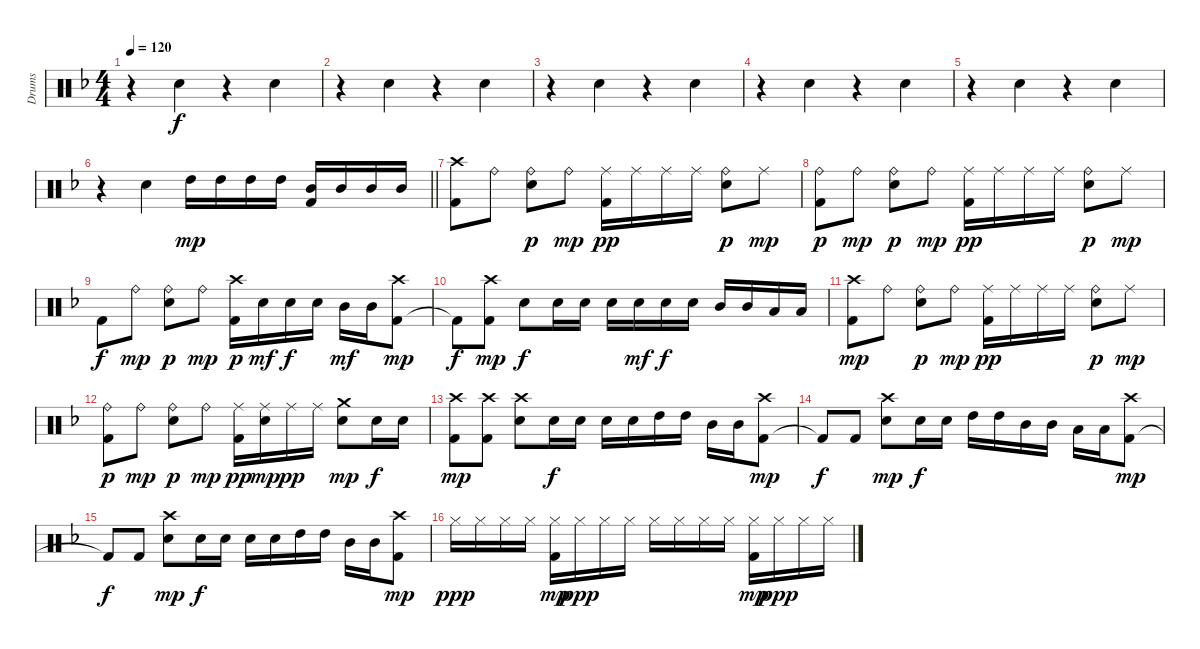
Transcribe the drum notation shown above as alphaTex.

\track ("Drums" "Drums") {instrument percussion}
\staff {score}
\articulation defaults
\ts (4 4)
\tempo 120
\clef neutral
\ks dminor
r.4{dy f} "Electric Snare (hit)".4 r.4 "Electric Snare (hit)".4 |
r.4 "Electric Snare (hit)".4 r.4 "Electric Snare (hit)".4 |
r.4 "Electric Snare (hit)".4 r.4 "Electric Snare (hit)".4 |
r.4 "Electric Snare (hit)".4 r.4 "Electric Snare (hit)".4 |
r.4 "Electric Snare (hit)".4 r.4 "Electric Snare (hit)".4 |
\barLineRight lightlight
r.4 "Electric Snare (hit)".4 "High Tom (hit)".16{dy mp} "High Tom (hit)".16 "High Tom (hit)".16 "High Tom (hit)".16 ("Mid Tom (hit)" "Kick (hit) 2").16 "Mid Tom (hit)".16 "Mid Tom (hit)".16 "Mid Tom (hit)".16 |
("Kick (hit) 2" "Crash high (hit)").8 "Ride (bell)".8 ("Electric Snare (hit)" "Ride (bell)").8{dy p} "Ride (bell)".8{dy mp} ("Kick (hit) 2" "Ride (middle)").16{dy pp} "Ride (middle)".16 "Ride (middle)".16 "Ride (middle)".16 ("Electric Snare (hit)" "Ride (bell)").8{dy p} "Ride (middle)".8{dy mp} |
("Kick (hit) 2" "Ride (bell)").8{dy p} "Ride (bell)".8{dy mp} ("Electric Snare (hit)" "Ride (bell)").8{dy p} "Ride (bell)".8{dy mp} ("Kick (hit) 2" "Ride (middle)").16{dy pp} "Ride (middle)".16 "Ride (middle)".16 "Ride (middle)".16 ("Electric Snare (hit)" "Ride (bell)").8{dy p} "Ride (middle)".8{dy mp} |
"Kick (hit) 2".8{dy f} "Ride (bell)".8{dy mp} ("Electric Snare (hit)" "Ride (bell)").8{dy p} "Ride (bell)".8{dy mp} ("Kick (hit) 2" "Crash high (hit)").16{dy p} "Electric Snare (hit)".16{dy mf} "Electric Snare (hit)".16{dy f} "Electric Snare (hit)".16 "Mid Tom (hit)".16{dy mf} "Mid Tom (hit)".16 ("Kick (hit) 2" "Crash high (hit)").8{dy mp} |
"Kick (hit) 2"{t}.8{dy f} ("Kick (hit) 2" "Crash high (hit)").8{dy mp} "Electric Snare (hit)".8{dy f} "Electric Snare (hit)".16 "Electric Snare (hit)".16 "Electric Snare (hit)".16 "Electric Snare (hit)".16{dy mf} "Electric Snare (hit)".16{dy f} "Electric Snare (hit)".16 "Mid Tom (hit)".16 "Mid Tom (hit)".16 "Low Tom (hit)".16 "Low Tom (hit)".16 |
("Kick (hit) 2" "Crash high (hit)").8{dy mp} "Ride (bell)".8 ("Electric Snare (hit)" "Ride (bell)").8{dy p} "Ride (bell)".8{dy mp} ("Kick (hit) 2" "Ride (middle)").16{dy pp} "Ride (middle)".16 "Ride (middle)".16 "Ride (middle)".16 ("Electric Snare (hit)" "Ride (bell)").8{dy p} "Ride (middle)".8{dy mp} |
("Kick (hit) 2" "Ride (bell)").8{dy p} "Ride (bell)".8{dy mp} ("Electric Snare (hit)" "Ride (bell)").8{dy p} "Ride (bell)".8{dy mp} ("Kick (hit) 2" "Ride (middle)").16{dy pp} ("Ride (middle)" "Electric Snare (hit)").16{dy mp} "Ride (middle)".16{dy pp} "Ride (middle)".16 ("Electric Snare (hit)" "Crash medium (hit)").8{dy mp} "Electric Snare (hit)".16{dy f} "Electric Snare (hit)".16 |
("Kick (hit) 2" "Crash high (hit)").8{dy mp} ("Kick (hit) 2" "Crash high (hit)").8 ("Electric Snare (hit)" "Crash high (hit)").8 "Electric Snare (hit)".16{dy f} "Electric Snare (hit)".16 "Electric Snare (hit)".16 "Electric Snare (hit)".16 "High Tom (hit)".16 "High Tom (hit)".16 "Mid Tom (hit)".16 "Mid Tom (hit)".16 ("Kick (hit) 2" "Crash high (hit)").8{dy mp} |
"Kick (hit) 2"{t}.8{dy f} "Kick (hit) 2".8 ("Electric Snare (hit)" "Crash high (hit)").8{dy mp} "Electric Snare (hit)".16{dy f} "Electric Snare (hit)".16 "High Tom (hit)".16 "High Tom (hit)".16 "Mid Tom (hit)".16 "Mid Tom (hit)".16 "Low Tom (hit)".16 "Low Tom (hit)".16 ("Kick (hit) 2" "Crash high (hit)").8{dy mp} |
"Kick (hit) 2"{t}.8{dy f} "Kick (hit) 2".8 ("Electric Snare (hit)" "Crash high (hit)").8{dy mp} "Electric Snare (hit)".16{dy f} "Electric Snare (hit)".16 "Electric Snare (hit)".16 "Electric Snare (hit)".16 "High Tom (hit)".16 "High Tom (hit)".16 "Mid Tom (hit)".16 "Mid Tom (hit)".16 ("Kick (hit) 2" "Crash high (hit)").8{dy mp} |
"Hi-Hat (closed)".16{dy ppp} "Hi-Hat (closed)".16 "Hi-Hat (closed)".16 "Hi-Hat (closed)".16 ("Hi-Hat (closed)" "Kick (hit) 2").16{dy mp} "Hi-Hat (closed)".16{dy ppp} "Hi-Hat (closed)".16 "Hi-Hat (closed)".16 "Hi-Hat (closed)".16 "Hi-Hat (closed)".16 "Hi-Hat (closed)".16 "Hi-Hat (closed)".16 ("Hi-Hat (closed)" "Kick (hit) 2").16{dy mp} "Hi-Hat (closed)".16{dy ppp} "Hi-Hat (closed)".16 "Hi-Hat (closed)".16
